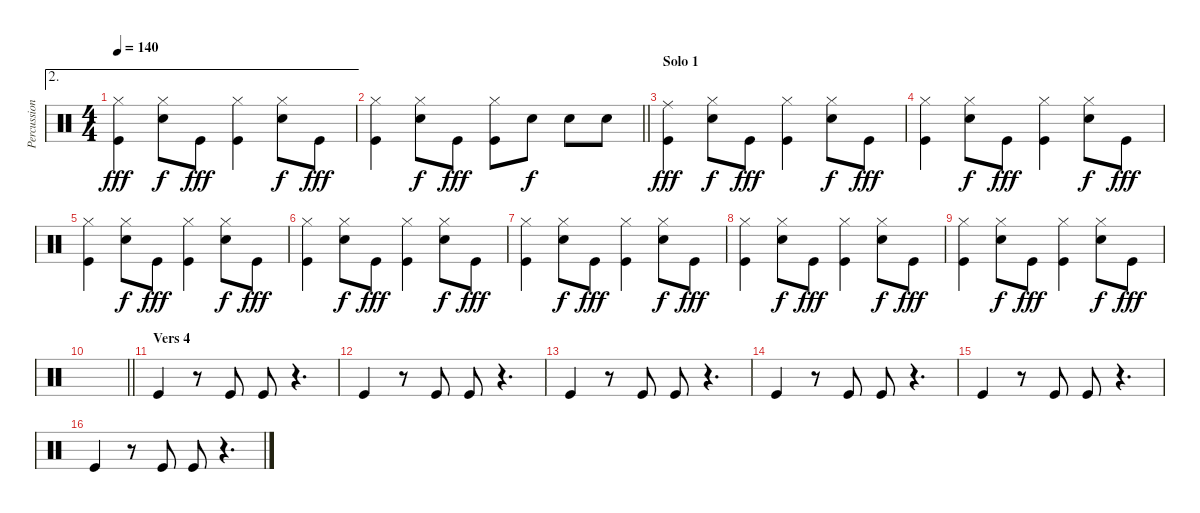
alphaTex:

\track ("Percussion" "Percussion") {instrument percussion}
\staff {score}
\articulation defaults
\ae 2
\ts (4 4)
\tempo 140
\clef neutral
\ks c
("Hi-Hat (closed)" "Kick (hit)").4{dy fff} ("Hi-Hat (closed)" "Snare (hit) 2").8{dy f} "Kick (hit)".8{dy fff} ("Hi-Hat (closed)" "Kick (hit)").4 ("Hi-Hat (closed)" "Snare (hit) 2").8{dy f} "Kick (hit)".8{dy fff} |
\barLineRight lightlight
("Hi-Hat (closed)" "Kick (hit)").4 ("Hi-Hat (closed)" "Snare (hit) 2").8{dy f} "Kick (hit)".8{dy fff} ("Hi-Hat (closed)" "Kick (hit)").8 "Snare (hit) 2".8{dy f} "Snare (hit) 2".8 "Snare (hit) 2".8 |
\section ("" "Solo 1")
("Ride (middle)" "Kick (hit)").4{dy fff} ("Hi-Hat (closed)" "Snare (hit) 2").8{dy f} "Kick (hit)".8{dy fff} ("Hi-Hat (closed)" "Kick (hit)").4 ("Hi-Hat (closed)" "Snare (hit) 2").8{dy f} "Kick (hit)".8{dy fff} |
("Hi-Hat (closed)" "Kick (hit)").4 ("Hi-Hat (closed)" "Snare (hit) 2").8{dy f} "Kick (hit)".8{dy fff} ("Hi-Hat (closed)" "Kick (hit)").4 ("Hi-Hat (closed)" "Snare (hit) 2").8{dy f} "Kick (hit)".8{dy fff} |
("Hi-Hat (closed)" "Kick (hit)").4 ("Hi-Hat (closed)" "Snare (hit) 2").8{dy f} "Kick (hit)".8{dy fff} ("Hi-Hat (closed)" "Kick (hit)").4 ("Hi-Hat (closed)" "Snare (hit) 2").8{dy f} "Kick (hit)".8{dy fff} |
("Hi-Hat (closed)" "Kick (hit)").4 ("Hi-Hat (closed)" "Snare (hit) 2").8{dy f} "Kick (hit)".8{dy fff} ("Hi-Hat (closed)" "Kick (hit)").4 ("Hi-Hat (closed)" "Snare (hit) 2").8{dy f} "Kick (hit)".8{dy fff} |
("Hi-Hat (closed)" "Kick (hit)").4 ("Hi-Hat (closed)" "Snare (hit) 2").8{dy f} "Kick (hit)".8{dy fff} ("Hi-Hat (closed)" "Kick (hit)").4 ("Hi-Hat (closed)" "Snare (hit) 2").8{dy f} "Kick (hit)".8{dy fff} |
("Hi-Hat (closed)" "Kick (hit)").4 ("Hi-Hat (closed)" "Snare (hit) 2").8{dy f} "Kick (hit)".8{dy fff} ("Hi-Hat (closed)" "Kick (hit)").4 ("Hi-Hat (closed)" "Snare (hit) 2").8{dy f} "Kick (hit)".8{dy fff} |
("Hi-Hat (closed)" "Kick (hit)").4 ("Hi-Hat (closed)" "Snare (hit) 2").8{dy f} "Kick (hit)".8{dy fff} ("Hi-Hat (closed)" "Kick (hit)").4 ("Hi-Hat (closed)" "Snare (hit) 2").8{dy f} "Kick (hit)".8{dy fff} |
\barLineRight lightlight
|
\section ("" "Vers 4")
"Kick (hit)".4 r.8 "Kick (hit)".8 "Kick (hit)".8 r.4{d} |
"Kick (hit)".4 r.8 "Kick (hit)".8 "Kick (hit)".8 r.4{d} |
"Kick (hit)".4 r.8 "Kick (hit)".8 "Kick (hit)".8 r.4{d} |
"Kick (hit)".4 r.8 "Kick (hit)".8 "Kick (hit)".8 r.4{d} |
"Kick (hit)".4 r.8 "Kick (hit)".8 "Kick (hit)".8 r.4{d} |
"Kick (hit)".4 r.8 "Kick (hit)".8 "Kick (hit)".8 r.4{d}
